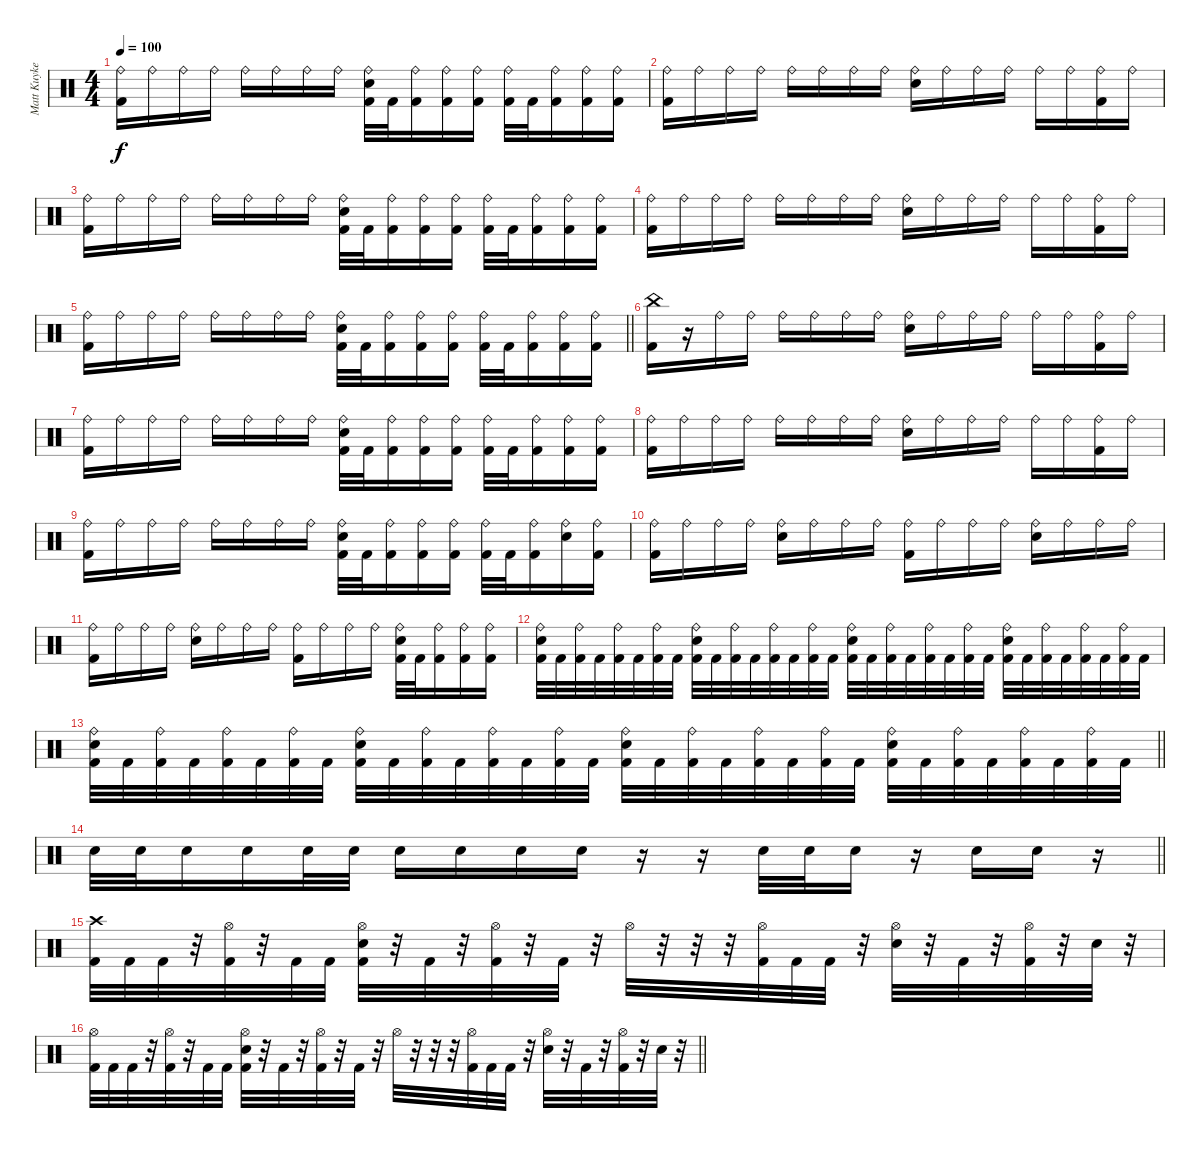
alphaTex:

\track ("Matt Kuykendall " "Matt Kuyke") {instrument percussion}
\staff {score}
\articulation defaults
\ts (4 4)
\tempo 100
\clef neutral
\ks c
("Ride (bell)" "Kick (hit) 2").16{dy f} "Ride (bell)".16 "Ride (bell)".16 "Ride (bell)".16 "Ride (bell)".16 "Ride (bell)".16 "Ride (bell)".16 "Ride (bell)".16 ("Ride (bell)" "Snare (hit) 2" "Kick (hit) 2").32 "Kick (hit) 2".32 ("Ride (bell)" "Kick (hit) 2").16 ("Ride (bell)" "Kick (hit) 2").16 ("Ride (bell)" "Kick (hit) 2").16 ("Ride (bell)" "Kick (hit) 2").32 "Kick (hit) 2".32 ("Ride (bell)" "Kick (hit) 2").16 ("Ride (bell)" "Kick (hit) 2").16 ("Ride (bell)" "Kick (hit) 2").16 |
("Ride (bell)" "Kick (hit) 2").16 "Ride (bell)".16 "Ride (bell)".16 "Ride (bell)".16 "Ride (bell)".16 "Ride (bell)".16 "Ride (bell)".16 "Ride (bell)".16 ("Ride (bell)" "Snare (hit) 2").16 "Ride (bell)".16 "Ride (bell)".16 "Ride (bell)".16 "Ride (bell)".16 "Ride (bell)".16 ("Ride (bell)" "Kick (hit) 2").16 "Ride (bell)".16 |
("Ride (bell)" "Kick (hit) 2").16 "Ride (bell)".16 "Ride (bell)".16 "Ride (bell)".16 "Ride (bell)".16 "Ride (bell)".16 "Ride (bell)".16 "Ride (bell)".16 ("Ride (bell)" "Snare (hit) 2" "Kick (hit) 2").32 "Kick (hit) 2".32 ("Ride (bell)" "Kick (hit) 2").16 ("Ride (bell)" "Kick (hit) 2").16 ("Ride (bell)" "Kick (hit) 2").16 ("Ride (bell)" "Kick (hit) 2").32 "Kick (hit) 2".32 ("Ride (bell)" "Kick (hit) 2").16 ("Ride (bell)" "Kick (hit) 2").16 ("Ride (bell)" "Kick (hit) 2").16 |
("Ride (bell)" "Kick (hit) 2").16 "Ride (bell)".16 "Ride (bell)".16 "Ride (bell)".16 "Ride (bell)".16 "Ride (bell)".16 "Ride (bell)".16 "Ride (bell)".16 ("Ride (bell)" "Snare (hit) 2").16 "Ride (bell)".16 "Ride (bell)".16 "Ride (bell)".16 "Ride (bell)".16 "Ride (bell)".16 ("Ride (bell)" "Kick (hit) 2").16 "Ride (bell)".16 |
\barLineRight lightlight
("Ride (bell)" "Kick (hit) 2").16 "Ride (bell)".16 "Ride (bell)".16 "Ride (bell)".16 "Ride (bell)".16 "Ride (bell)".16 "Ride (bell)".16 "Ride (bell)".16 ("Ride (bell)" "Snare (hit) 2" "Kick (hit) 2").32 "Kick (hit) 2".32 ("Ride (bell)" "Kick (hit) 2").16 ("Ride (bell)" "Kick (hit) 2").16 ("Ride (bell)" "Kick (hit) 2").16 ("Ride (bell)" "Kick (hit) 2").32 "Kick (hit) 2".32 ("Ride (bell)" "Kick (hit) 2").16 ("Ride (bell)" "Kick (hit) 2").16 ("Ride (bell)" "Kick (hit) 2").16 |
\section ("" "")
("China (hit)" "Kick (hit) 2").16 r.16 "Ride (bell)".16 "Ride (bell)".16 "Ride (bell)".16 "Ride (bell)".16 "Ride (bell)".16 "Ride (bell)".16 ("Ride (bell)" "Snare (hit) 2").16 "Ride (bell)".16 "Ride (bell)".16 "Ride (bell)".16 "Ride (bell)".16 "Ride (bell)".16 ("Ride (bell)" "Kick (hit) 2").16 "Ride (bell)".16 |
("Ride (bell)" "Kick (hit) 2").16 "Ride (bell)".16 "Ride (bell)".16 "Ride (bell)".16 "Ride (bell)".16 "Ride (bell)".16 "Ride (bell)".16 "Ride (bell)".16 ("Ride (bell)" "Snare (hit) 2" "Kick (hit) 2").32 "Kick (hit) 2".32 ("Ride (bell)" "Kick (hit) 2").16 ("Ride (bell)" "Kick (hit) 2").16 ("Ride (bell)" "Kick (hit) 2").16 ("Ride (bell)" "Kick (hit) 2").32 "Kick (hit) 2".32 ("Ride (bell)" "Kick (hit) 2").16 ("Ride (bell)" "Kick (hit) 2").16 ("Ride (bell)" "Kick (hit) 2").16 |
("Ride (bell)" "Kick (hit) 2").16 "Ride (bell)".16 "Ride (bell)".16 "Ride (bell)".16 "Ride (bell)".16 "Ride (bell)".16 "Ride (bell)".16 "Ride (bell)".16 ("Ride (bell)" "Snare (hit) 2").16 "Ride (bell)".16 "Ride (bell)".16 "Ride (bell)".16 "Ride (bell)".16 "Ride (bell)".16 ("Ride (bell)" "Kick (hit) 2").16 "Ride (bell)".16 |
("Ride (bell)" "Kick (hit) 2").16 "Ride (bell)".16 "Ride (bell)".16 "Ride (bell)".16 "Ride (bell)".16 "Ride (bell)".16 "Ride (bell)".16 "Ride (bell)".16 ("Ride (bell)" "Snare (hit) 2" "Kick (hit) 2").32 "Kick (hit) 2".32 ("Ride (bell)" "Kick (hit) 2").16 ("Ride (bell)" "Kick (hit) 2").16 ("Ride (bell)" "Kick (hit) 2").16 ("Ride (bell)" "Kick (hit) 2").32 "Kick (hit) 2".32 ("Ride (bell)" "Kick (hit) 2").16 ("Ride (bell)" "Snare (hit) 2").16 ("Ride (bell)" "Kick (hit) 2").16 |
("Ride (bell)" "Kick (hit) 2").16 "Ride (bell)".16 "Ride (bell)".16 "Ride (bell)".16 ("Ride (bell)" "Snare (hit) 2").16 "Ride (bell)".16 "Ride (bell)".16 "Ride (bell)".16 ("Ride (bell)" "Kick (hit) 2").16 "Ride (bell)".16 "Ride (bell)".16 "Ride (bell)".16 ("Ride (bell)" "Snare (hit) 2").16 "Ride (bell)".16 "Ride (bell)".16 "Ride (bell)".16 |
("Ride (bell)" "Kick (hit) 2").16 "Ride (bell)".16 "Ride (bell)".16 "Ride (bell)".16 ("Ride (bell)" "Snare (hit) 2").16 "Ride (bell)".16 "Ride (bell)".16 "Ride (bell)".16 ("Ride (bell)" "Kick (hit) 2").16 "Ride (bell)".16 "Ride (bell)".16 "Ride (bell)".16 ("Ride (bell)" "Snare (hit) 2" "Kick (hit) 2").32 "Kick (hit) 2".32 ("Ride (bell)" "Kick (hit) 2").16 ("Ride (bell)" "Kick (hit) 2").16 ("Ride (bell)" "Kick (hit) 2").16 |
("Ride (bell)" "Snare (hit) 2" "Kick (hit) 2").32 "Kick (hit) 2".32 ("Ride (bell)" "Kick (hit) 2").32 "Kick (hit) 2".32 ("Ride (bell)" "Kick (hit) 2").32 "Kick (hit) 2".32 ("Ride (bell)" "Kick (hit) 2").32 "Kick (hit) 2".32 ("Ride (bell)" "Snare (hit) 2" "Kick (hit) 2").32 "Kick (hit) 2".32 ("Ride (bell)" "Kick (hit) 2").32 "Kick (hit) 2".32 ("Ride (bell)" "Kick (hit) 2").32 "Kick (hit) 2".32 ("Ride (bell)" "Kick (hit) 2").32 "Kick (hit) 2".32 ("Ride (bell)" "Snare (hit) 2" "Kick (hit) 2").32 "Kick (hit) 2".32 ("Ride (bell)" "Kick (hit) 2").32 "Kick (hit) 2".32 ("Ride (bell)" "Kick (hit) 2").32 "Kick (hit) 2".32 ("Ride (bell)" "Kick (hit) 2").32 "Kick (hit) 2".32 ("Ride (bell)" "Snare (hit) 2" "Kick (hit) 2").32 "Kick (hit) 2".32 ("Ride (bell)" "Kick (hit) 2").32 "Kick (hit) 2".32 ("Ride (bell)" "Kick (hit) 2").32 "Kick (hit) 2".32 ("Ride (bell)" "Kick (hit) 2").32 "Kick (hit) 2".32 |
\barLineRight lightlight
("Ride (bell)" "Snare (hit) 2" "Kick (hit) 2").32 "Kick (hit) 2".32 ("Ride (bell)" "Kick (hit) 2").32 "Kick (hit) 2".32 ("Ride (bell)" "Kick (hit) 2").32 "Kick (hit) 2".32 ("Ride (bell)" "Kick (hit) 2").32 "Kick (hit) 2".32 ("Ride (bell)" "Snare (hit) 2" "Kick (hit) 2").32 "Kick (hit) 2".32 ("Ride (bell)" "Kick (hit) 2").32 "Kick (hit) 2".32 ("Ride (bell)" "Kick (hit) 2").32 "Kick (hit) 2".32 ("Ride (bell)" "Kick (hit) 2").32 "Kick (hit) 2".32 ("Ride (bell)" "Snare (hit) 2" "Kick (hit) 2").32 "Kick (hit) 2".32 ("Ride (bell)" "Kick (hit) 2").32 "Kick (hit) 2".32 ("Ride (bell)" "Kick (hit) 2").32 "Kick (hit) 2".32 ("Ride (bell)" "Kick (hit) 2").32 "Kick (hit) 2".32 ("Ride (bell)" "Snare (hit) 2" "Kick (hit) 2").32 "Kick (hit) 2".32 ("Ride (bell)" "Kick (hit) 2").32 "Kick (hit) 2".32 ("Ride (bell)" "Kick (hit) 2").32 "Kick (hit) 2".32 ("Ride (bell)" "Kick (hit) 2").32 "Kick (hit) 2".32 |
\section ("" "")
\barLineRight lightlight "Snare (hit) 2".32 "Snare (hit) 2".32 "Snare (hit) 2".16 "Snare (hit) 2".16 "Snare (hit) 2".32 "Snare (hit) 2".32 "Snare (hit) 2".16 "Snare (hit) 2".16 "Snare (hit) 2".16 "Snare (hit) 2".16
r.16 r.16 "Snare (hit) 2".32 "Snare (hit) 2".32 "Snare (hit) 2".16 r.16 "Snare (hit) 2".16 "Snare (hit) 2".16 r.16 |
\section ("" "")
("Crash high (hit)" "Kick (hit) 2").32 "Kick (hit) 2".32 "Kick (hit) 2".32 r.32 ("Hi-Hat (open)" "Kick (hit) 2").32 r.32 "Kick (hit) 2".32 "Kick (hit) 2".32 ("Hi-Hat (open)" "Snare (hit) 2" "Kick (hit) 2").32 r.32 "Kick (hit) 2".32 r.32 ("Hi-Hat (open)" "Kick (hit) 2").32 r.32 "Kick (hit) 2".32 r.32 "Hi-Hat (open)".32 r.32 r.32 r.32 ("Hi-Hat (open)" "Kick (hit) 2").32 "Kick (hit) 2".32 "Kick (hit) 2".32 r.32 ("Hi-Hat (open)" "Snare (hit) 2").32 r.32 "Kick (hit) 2".32 r.32 ("Hi-Hat (open)" "Kick (hit) 2").32 r.32 "Snare (hit) 2".32 r.32 |
\barLineRight lightlight
("Hi-Hat (open)" "Kick (hit) 2").32 "Kick (hit) 2".32 "Kick (hit) 2".32 r.32 ("Hi-Hat (open)" "Kick (hit) 2").32 r.32 "Kick (hit) 2".32 "Kick (hit) 2".32 ("Hi-Hat (open)" "Snare (hit) 2" "Kick (hit) 2").32 r.32 "Kick (hit) 2".32 r.32 ("Hi-Hat (open)" "Kick (hit) 2").32 r.32 "Kick (hit) 2".32 r.32 "Hi-Hat (open)".32 r.32 r.32 r.32 ("Hi-Hat (open)" "Kick (hit) 2").32 "Kick (hit) 2".32 "Kick (hit) 2".32 r.32 ("Hi-Hat (open)" "Snare (hit) 2").32 r.32 "Kick (hit) 2".32 r.32 ("Hi-Hat (open)" "Kick (hit) 2").32 r.32 "Snare (hit) 2".32 r.32
